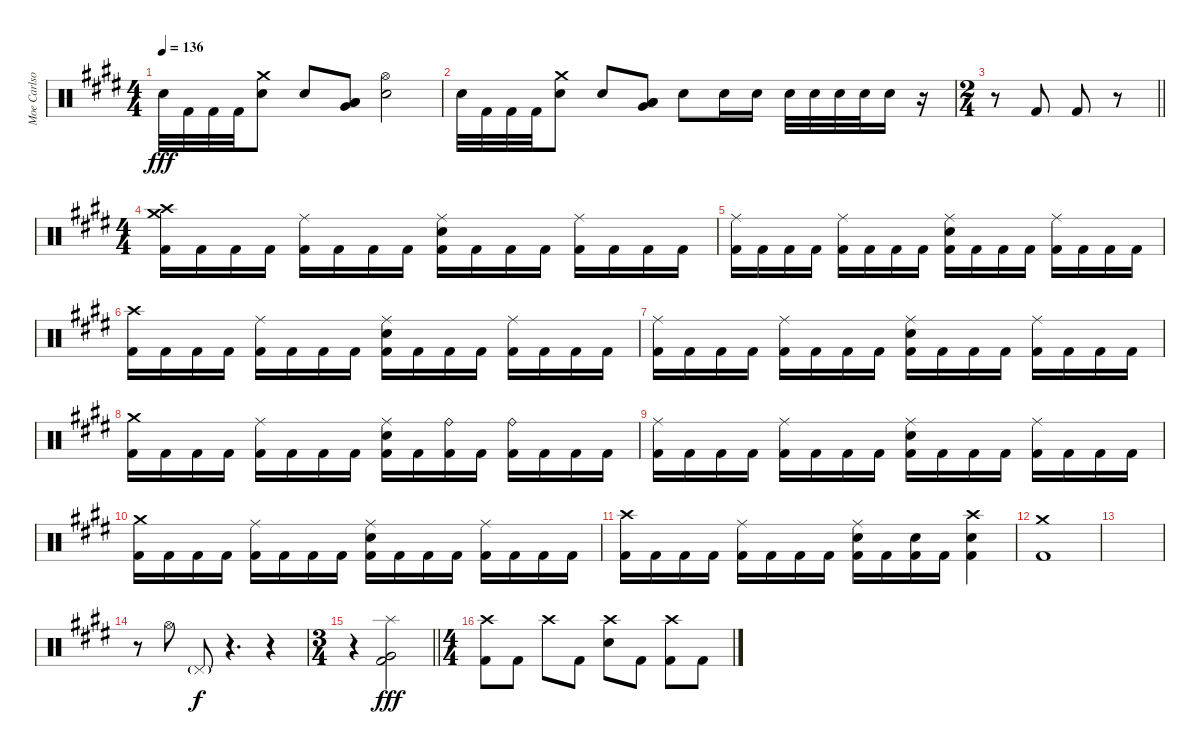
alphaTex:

\track ("Moe Carlson" "Moe Carlso") {instrument percussion}
\staff {score}
\articulation defaults
\ts (4 4)
\tempo 136
\clef neutral
\ks e "Electric Snare (hit)".32{dy fff} "Kick (hit) 2".32 "Kick (hit) 2".32 "Kick (hit) 2".32
("Crash medium (hit)" "Electric Snare (hit)").8 "Electric Snare (hit)".8 ("Low Tom (hit)" "Low Floor Tom (hit)" "Very Low Tom (hit)").8 ("Hi-Hat (open)" "Electric Snare (hit)").2 |
"Electric Snare (hit)".32 "Kick (hit) 2".32 "Kick (hit) 2".32 "Kick (hit) 2".32 ("Crash medium (hit)" "Electric Snare (hit)").8 "Electric Snare (hit)".8 ("Low Floor Tom (hit)" "Low Tom (hit)" "Very Low Tom (hit)").8 "Electric Snare (hit)".8 "Electric Snare (hit)".16 "Electric Snare (hit)".16 "Electric Snare (hit)".32 "Electric Snare (hit)".32 "Electric Snare (hit)".32 "Electric Snare (hit)".32 "Electric Snare (hit)".16 r.16 |
\ts (2 4)
\barLineRight lightlight
r.8 "Kick (hit) 2".8 "Kick (hit) 2".8 r.8 |
\ts (4 4)
("Crash medium (hit)" "Crash high (hit)" "Kick (hit) 2").16 "Kick (hit) 2".16 "Kick (hit) 2".16 "Kick (hit) 2".16 ("Ride (middle)" "Kick (hit) 2").16 "Kick (hit) 2".16 "Kick (hit) 2".16 "Kick (hit) 2".16 ("Ride (middle)" "Electric Snare (hit)" "Kick (hit) 2").16 "Kick (hit) 2".16 "Kick (hit) 2".16 "Kick (hit) 2".16 ("Ride (middle)" "Kick (hit) 2").16 "Kick (hit) 2".16 "Kick (hit) 2".16 "Kick (hit) 2".16 |
("Ride (middle)" "Kick (hit) 2").16 "Kick (hit) 2".16 "Kick (hit) 2".16 "Kick (hit) 2".16 ("Ride (middle)" "Kick (hit) 2").16 "Kick (hit) 2".16 "Kick (hit) 2".16 "Kick (hit) 2".16 ("Ride (middle)" "Electric Snare (hit)" "Kick (hit) 2").16 "Kick (hit) 2".16 "Kick (hit) 2".16 "Kick (hit) 2".16 ("Ride (middle)" "Kick (hit) 2").16 "Kick (hit) 2".16 "Kick (hit) 2".16 "Kick (hit) 2".16 |
("Crash high (hit)" "Kick (hit) 2").16 "Kick (hit) 2".16 "Kick (hit) 2".16 "Kick (hit) 2".16 ("Ride (middle)" "Kick (hit) 2").16 "Kick (hit) 2".16 "Kick (hit) 2".16 "Kick (hit) 2".16 ("Ride (middle)" "Electric Snare (hit)" "Kick (hit) 2").16 "Kick (hit) 2".16 "Kick (hit) 2".16 "Kick (hit) 2".16 ("Ride (middle)" "Kick (hit) 2").16 "Kick (hit) 2".16 "Kick (hit) 2".16 "Kick (hit) 2".16 |
("Ride (middle)" "Kick (hit) 2").16 "Kick (hit) 2".16 "Kick (hit) 2".16 "Kick (hit) 2".16 ("Ride (middle)" "Kick (hit) 2").16 "Kick (hit) 2".16 "Kick (hit) 2".16 "Kick (hit) 2".16 ("Ride (middle)" "Electric Snare (hit)" "Kick (hit) 2").16 "Kick (hit) 2".16 "Kick (hit) 2".16 "Kick (hit) 2".16 ("Ride (middle)" "Kick (hit) 2").16 "Kick (hit) 2".16 "Kick (hit) 2".16 "Kick (hit) 2".16 |
("Crash medium (hit)" "Kick (hit) 2").16 "Kick (hit) 2".16 "Kick (hit) 2".16 "Kick (hit) 2".16 ("Ride (middle)" "Kick (hit) 2").16 "Kick (hit) 2".16 "Kick (hit) 2".16 "Kick (hit) 2".16 ("Ride (middle)" "Electric Snare (hit)" "Kick (hit) 2").16 "Kick (hit) 2".16 ("Ride (bell)" "Kick (hit) 2").16 "Kick (hit) 2".16 ("Ride (bell)" "Kick (hit) 2").16 "Kick (hit) 2".16 "Kick (hit) 2".16 "Kick (hit) 2".16 |
("Ride (middle)" "Kick (hit) 2").16 "Kick (hit) 2".16 "Kick (hit) 2".16 "Kick (hit) 2".16 ("Ride (middle)" "Kick (hit) 2").16 "Kick (hit) 2".16 "Kick (hit) 2".16 "Kick (hit) 2".16 ("Ride (middle)" "Electric Snare (hit)" "Kick (hit) 2").16 "Kick (hit) 2".16 "Kick (hit) 2".16 "Kick (hit) 2".16 ("Ride (middle)" "Kick (hit) 2").16 "Kick (hit) 2".16 "Kick (hit) 2".16 "Kick (hit) 2".16 |
("Crash medium (hit)" "Kick (hit) 2").16 "Kick (hit) 2".16 "Kick (hit) 2".16 "Kick (hit) 2".16 ("Ride (middle)" "Kick (hit) 2").16 "Kick (hit) 2".16 "Kick (hit) 2".16 "Kick (hit) 2".16 ("Ride (middle)" "Electric Snare (hit)" "Kick (hit) 2").16 "Kick (hit) 2".16 "Kick (hit) 2".16 "Kick (hit) 2".16 ("Ride (middle)" "Kick (hit) 2").16 "Kick (hit) 2".16 "Kick (hit) 2".16 "Kick (hit) 2".16 |
("Crash high (hit)" "Kick (hit) 2").16 "Kick (hit) 2".16 "Kick (hit) 2".16 "Kick (hit) 2".16 ("Ride (middle)" "Kick (hit) 2").16 "Kick (hit) 2".16 "Kick (hit) 2".16 "Kick (hit) 2".16 ("Ride (middle)" "Electric Snare (hit)" "Kick (hit) 2").16 "Kick (hit) 2".16 ("Electric Snare (hit)" "Kick (hit) 2").16 "Kick (hit) 2".16 ("Crash high (hit)" "Electric Snare (hit)" "Kick (hit) 2").4 |
("Crash medium (hit)" "Kick (hit) 2").1 |
|
r.8 "Hi-Hat (open)".8 "Pedal Hi-Hat (hit)"{g}.8{dy f} r.4{d} r.4 |
\ts (3 4)
\barLineRight lightlight
r.4 ("Splash (hit)" "Very Low Tom (hit)" "Kick (hit) 2").2{dy fff} |
\ts (4 4)
("Crash high (hit)" "Kick (hit) 2").8 "Kick (hit) 2".8 "Crash high (hit)".8 "Kick (hit) 2".8 ("Crash high (hit)" "Electric Snare (hit)").8 "Kick (hit) 2".8 ("Crash high (hit)" "Kick (hit) 2").8 "Kick (hit) 2".8
